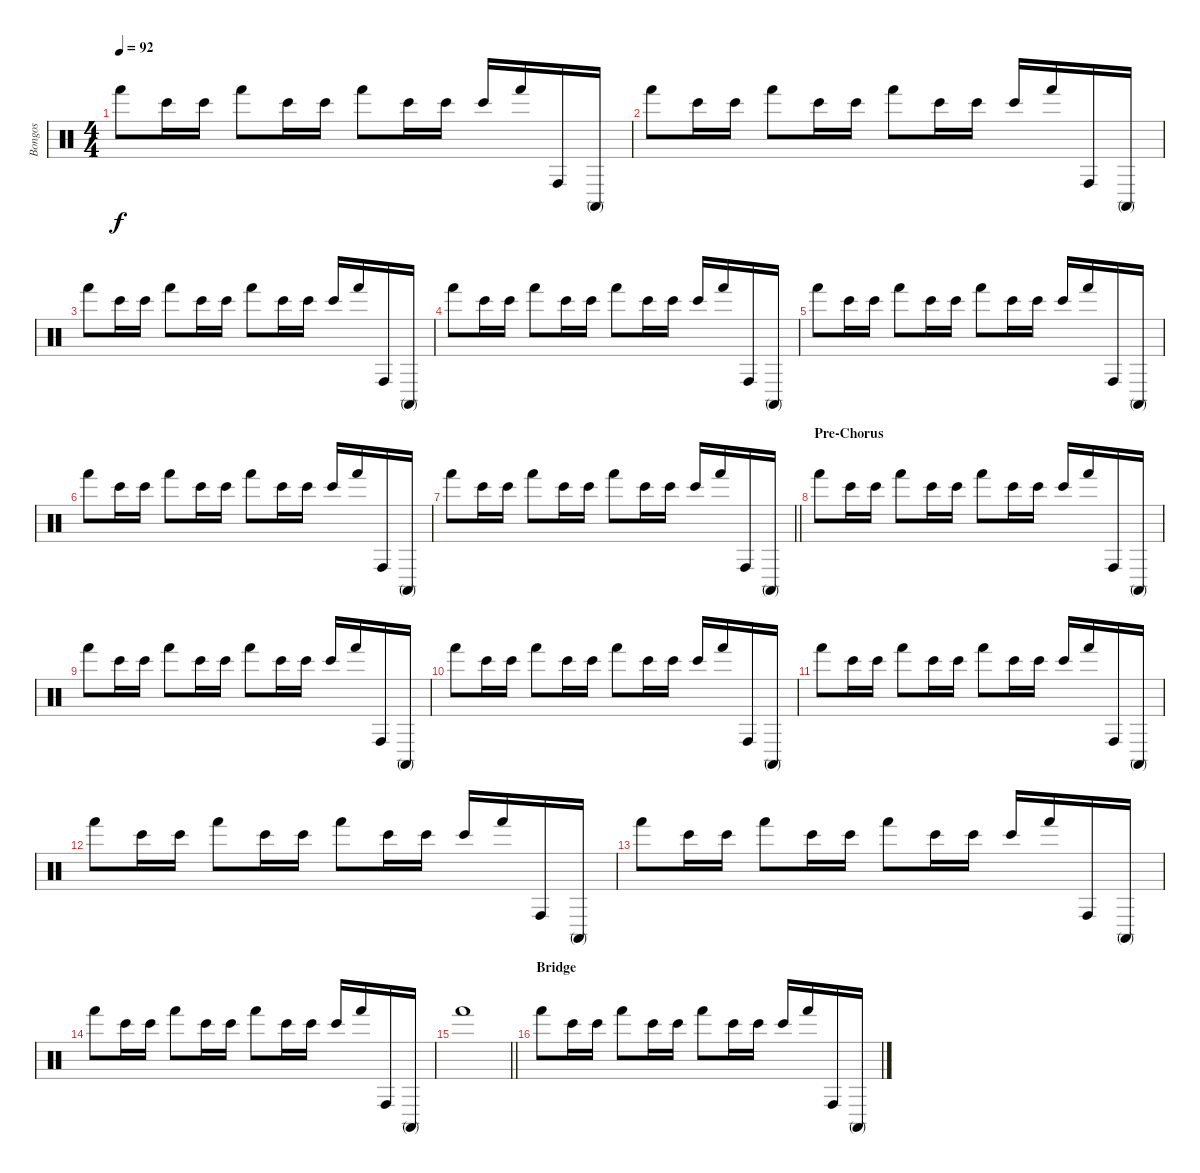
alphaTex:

\track ("Bongos" "Bongos") {instrument percussion}
\staff {score}
\articulation defaults
\ts (4 4)
\tempo 92
\clef neutral
\ks c "Hand (hit)".8{dy f} "Bongo High (hit)".16 "Bongo High (hit)".16 "Hand (hit)".8 "Bongo High (hit)".16 "Bongo High (hit)".16 "Hand (hit)".8 "Bongo High (hit)".16 "Bongo High (hit)".16 "Bongo High (hit)".16 "Hand (hit)".16 "Conga high (hit)".16 "Conga high (mute)".16
|
"Hand (hit)".8{volume 8} "Bongo High (hit)".16 "Bongo High (hit)".16 "Hand (hit)".8 "Bongo High (hit)".16 "Bongo High (hit)".16 "Hand (hit)".8 "Bongo High (hit)".16 "Bongo High (hit)".16 "Bongo High (hit)".16 "Hand (hit)".16 "Conga high (hit)".16 "Conga high (mute)".16 |
"Hand (hit)".8 "Bongo High (hit)".16 "Bongo High (hit)".16 "Hand (hit)".8 "Bongo High (hit)".16 "Bongo High (hit)".16 "Hand (hit)".8 "Bongo High (hit)".16 "Bongo High (hit)".16 "Bongo High (hit)".16 "Hand (hit)".16 "Conga high (hit)".16 "Conga high (mute)".16 |
"Hand (hit)".8{volume 8} "Bongo High (hit)".16 "Bongo High (hit)".16 "Hand (hit)".8 "Bongo High (hit)".16 "Bongo High (hit)".16 "Hand (hit)".8 "Bongo High (hit)".16 "Bongo High (hit)".16 "Bongo High (hit)".16 "Hand (hit)".16 "Conga high (hit)".16 "Conga high (mute)".16 |
"Hand (hit)".8 "Bongo High (hit)".16 "Bongo High (hit)".16 "Hand (hit)".8 "Bongo High (hit)".16 "Bongo High (hit)".16 "Hand (hit)".8 "Bongo High (hit)".16 "Bongo High (hit)".16 "Bongo High (hit)".16 "Hand (hit)".16 "Conga high (hit)".16 "Conga high (mute)".16 |
"Hand (hit)".8{volume 8} "Bongo High (hit)".16 "Bongo High (hit)".16 "Hand (hit)".8 "Bongo High (hit)".16 "Bongo High (hit)".16 "Hand (hit)".8 "Bongo High (hit)".16 "Bongo High (hit)".16 "Bongo High (hit)".16 "Hand (hit)".16 "Conga high (hit)".16 "Conga high (mute)".16 |
\barLineRight lightlight "Hand (hit)".8 "Bongo High (hit)".16 "Bongo High (hit)".16 "Hand (hit)".8 "Bongo High (hit)".16 "Bongo High (hit)".16 "Hand (hit)".8 "Bongo High (hit)".16 "Bongo High (hit)".16 "Bongo High (hit)".16 "Hand (hit)".16 "Conga high (hit)".16 "Conga high (mute)".16
|
\section ("" "Pre-Chorus")
"Hand (hit)".8{volume 8} "Bongo High (hit)".16 "Bongo High (hit)".16 "Hand (hit)".8 "Bongo High (hit)".16 "Bongo High (hit)".16 "Hand (hit)".8 "Bongo High (hit)".16 "Bongo High (hit)".16 "Bongo High (hit)".16 "Hand (hit)".16 "Conga high (hit)".16 "Conga high (mute)".16 |
"Hand (hit)".8 "Bongo High (hit)".16 "Bongo High (hit)".16 "Hand (hit)".8 "Bongo High (hit)".16 "Bongo High (hit)".16 "Hand (hit)".8 "Bongo High (hit)".16 "Bongo High (hit)".16 "Bongo High (hit)".16 "Hand (hit)".16 "Conga high (hit)".16 "Conga high (mute)".16 |
"Hand (hit)".8{volume 8} "Bongo High (hit)".16 "Bongo High (hit)".16 "Hand (hit)".8 "Bongo High (hit)".16 "Bongo High (hit)".16 "Hand (hit)".8 "Bongo High (hit)".16 "Bongo High (hit)".16 "Bongo High (hit)".16 "Hand (hit)".16 "Conga high (hit)".16 "Conga high (mute)".16 |
"Hand (hit)".8 "Bongo High (hit)".16 "Bongo High (hit)".16 "Hand (hit)".8 "Bongo High (hit)".16 "Bongo High (hit)".16 "Hand (hit)".8 "Bongo High (hit)".16 "Bongo High (hit)".16 "Bongo High (hit)".16 "Hand (hit)".16 "Conga high (hit)".16 "Conga high (mute)".16 |
"Hand (hit)".8{volume 8} "Bongo High (hit)".16 "Bongo High (hit)".16 "Hand (hit)".8 "Bongo High (hit)".16 "Bongo High (hit)".16 "Hand (hit)".8 "Bongo High (hit)".16 "Bongo High (hit)".16 "Bongo High (hit)".16 "Hand (hit)".16 "Conga high (hit)".16 "Conga high (mute)".16 |
"Hand (hit)".8 "Bongo High (hit)".16 "Bongo High (hit)".16 "Hand (hit)".8 "Bongo High (hit)".16 "Bongo High (hit)".16 "Hand (hit)".8 "Bongo High (hit)".16 "Bongo High (hit)".16 "Bongo High (hit)".16 "Hand (hit)".16 "Conga high (hit)".16 "Conga high (mute)".16 |
"Hand (hit)".8 "Bongo High (hit)".16 "Bongo High (hit)".16 "Hand (hit)".8 "Bongo High (hit)".16 "Bongo High (hit)".16 "Hand (hit)".8 "Bongo High (hit)".16 "Bongo High (hit)".16 "Bongo High (hit)".16 "Hand (hit)".16 "Conga high (hit)".16 "Conga high (mute)".16 |
\barLineRight lightlight "Hand (hit)".1
|
\section ("" "Bridge")
"Hand (hit)".8{volume 8} "Bongo High (hit)".16 "Bongo High (hit)".16 "Hand (hit)".8 "Bongo High (hit)".16 "Bongo High (hit)".16 "Hand (hit)".8 "Bongo High (hit)".16 "Bongo High (hit)".16 "Bongo High (hit)".16 "Hand (hit)".16 "Conga high (hit)".16 "Conga high (mute)".16
